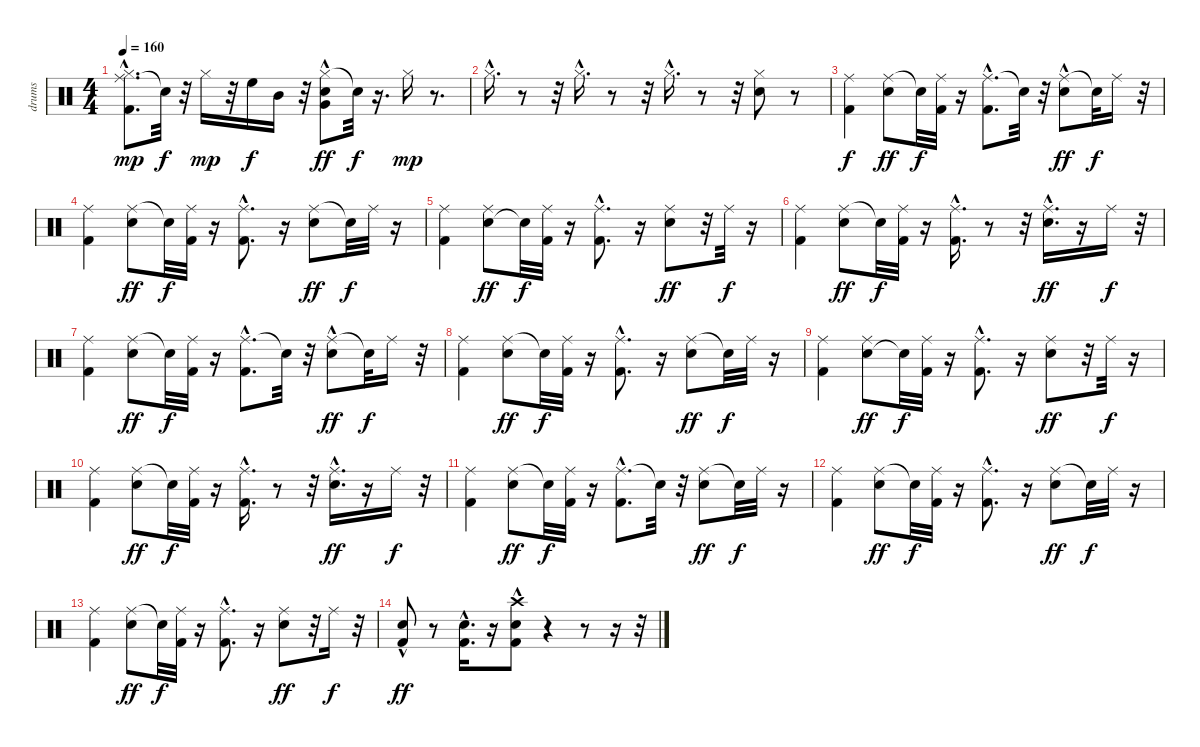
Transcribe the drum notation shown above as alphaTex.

\track ("drums" "drums") {instrument percussion}
\staff {score}
\articulation defaults
\ts (4 4)
\tempo 160
\clef neutral
\ks c
("Ride (middle)" "Kick (hit) 2"{hac} "Hi-Hat (closed)").8{d dy mp} "Snare (hit)"{t}.32{dy f} r.32 "Hi-Hat (closed)".16{dy mp} r.32 "High Floor Tom (hit)".16{dy f} "Mid Tom (hit)".16 r.32 ("Hi-Hat (closed)" "Snare (hit) 2" "Very Low Tom (hit)"{hac}).8{dy ff} "Snare (hit)"{t}.32{dy f} r.16{d} "Hi-Hat (closed)".16{dy mp} r.8{d} |
"Hi-Hat (closed)"{hac}.16{d} r.8 r.32 "Hi-Hat (closed)"{hac}.16{d} r.8 r.32 "Hi-Hat (closed)"{hac}.16{d} r.8 r.32 ("Snare (hit) 2" "Hi-Hat (closed)").8 r.8 |
("Kick (hit) 2" "Ride (middle)").4{dy f} ("Ride (middle)" "Snare (hit) 2").8{dy ff} "Snare (hit)"{t}.32{dy f} ("Ride (middle)" "Kick (hit) 2").32 r.16 ("Ride (middle)" "Kick (hit) 2"{hac}).8{d} "Snare (hit)"{t}.32 r.32 ("Ride (middle)"{hac} "Snare (hit) 2").8{dy ff} "Snare (hit)"{t}.32{dy f} "Ride (middle)".16 r.32 |
("Kick (hit) 2" "Ride (middle)").4 ("Ride (middle)" "Snare (hit) 2").8{dy ff} "Snare (hit)"{t}.32{dy f} ("Ride (middle)" "Kick (hit) 2").32 r.16 ("Ride (middle)" "Kick (hit) 2"{hac}).8{d} r.16 ("Ride (middle)" "Snare (hit) 2").8{dy ff} "Snare (hit)"{t}.32{dy f} "Ride (middle)".32 r.16 |
("Ride (middle)" "Kick (hit) 2").4 ("Snare (hit) 2" "Ride (middle)").8{dy ff} "Snare (hit)"{t}.32{dy f} ("Ride (middle)" "Kick (hit) 2").32 r.16 ("Ride (middle)" "Kick (hit) 2"{hac}).8{d} r.16 ("Ride (middle)" "Snare (hit) 2").8{dy ff} r.32 "Ride (middle)".32{dy f} r.16 |
("Ride (middle)" "Kick (hit) 2").4 ("Ride (middle)" "Snare (hit) 2").8{dy ff} "Snare (hit)"{t}.32{dy f} ("Ride (middle)" "Kick (hit) 2").32 r.16 ("Ride (middle)" "Kick (hit) 2"{hac}).16{d} r.8 r.32 ("Ride (middle)" "Snare (hit) 2"{hac}).16{d dy ff} r.16 "Ride (middle)".16{dy f} r.32 |
("Kick (hit) 2" "Ride (middle)").4 ("Ride (middle)" "Snare (hit) 2").8{dy ff} "Snare (hit)"{t}.32{dy f} ("Ride (middle)" "Kick (hit) 2").32 r.16 ("Ride (middle)" "Kick (hit) 2"{hac}).8{d} "Snare (hit)"{t}.32 r.32 ("Ride (middle)"{hac} "Snare (hit) 2").8{dy ff} "Snare (hit)"{t}.32{dy f} "Ride (middle)".16 r.32 |
("Kick (hit) 2" "Ride (middle)").4 ("Ride (middle)" "Snare (hit) 2").8{dy ff} "Snare (hit)"{t}.32{dy f} ("Ride (middle)" "Kick (hit) 2").32 r.16 ("Ride (middle)" "Kick (hit) 2"{hac}).8{d} r.16 ("Ride (middle)" "Snare (hit) 2").8{dy ff} "Snare (hit)"{t}.32{dy f} "Ride (middle)".32 r.16 |
("Ride (middle)" "Kick (hit) 2").4 ("Snare (hit) 2" "Ride (middle)").8{dy ff} "Snare (hit)"{t}.32{dy f} ("Ride (middle)" "Kick (hit) 2").32 r.16 ("Ride (middle)" "Kick (hit) 2"{hac}).8{d} r.16 ("Ride (middle)" "Snare (hit) 2").8{dy ff} r.32 "Ride (middle)".32{dy f} r.16 |
("Ride (middle)" "Kick (hit) 2").4 ("Ride (middle)" "Snare (hit) 2").8{dy ff} "Snare (hit)"{t}.32{dy f} ("Ride (middle)" "Kick (hit) 2").32 r.16 ("Ride (middle)" "Kick (hit) 2"{hac}).16{d} r.8 r.32 ("Ride (middle)" "Snare (hit) 2"{hac}).16{d dy ff} r.16 "Ride (middle)".16{dy f} r.32 |
("Ride (middle)" "Kick (hit) 2").4 ("Ride (middle)" "Snare (hit) 2").8{dy ff} "Snare (hit)"{t}.32{dy f} ("Ride (middle)" "Kick (hit) 2").32 r.16 ("Ride (middle)" "Kick (hit) 2"{hac}).8{d} "Snare (hit)"{t}.32 r.32 ("Ride (middle)" "Snare (hit) 2").8{dy ff} "Snare (hit)"{t}.32{dy f} "Ride (middle)".32 r.16 |
("Ride (middle)" "Kick (hit) 2").4 ("Ride (middle)" "Snare (hit) 2").8{dy ff} "Snare (hit)"{t}.32{dy f} ("Ride (middle)" "Kick (hit) 2").32 r.16 ("Ride (middle)" "Kick (hit) 2"{hac}).8{d} r.16 ("Ride (middle)" "Snare (hit) 2").8{dy ff} "Snare (hit)"{t}.32{dy f} "Ride (middle)".32 r.16 |
("Ride (middle)" "Kick (hit) 2").4 ("Ride (middle)" "Snare (hit) 2").8{dy ff} "Snare (hit)"{t}.32{dy f} ("Ride (middle)" "Kick (hit) 2").32 r.16 ("Ride (middle)" "Kick (hit) 2"{hac}).8{d} r.16 ("Ride (middle)" "Snare (hit) 2").8{dy ff} r.32 "Ride (middle)".16{dy f} r.32 |
("Kick (hit) 2" "Snare (hit) 2"{hac}).8{dy ff} r.8 ("Kick (hit) 2"{hac} "Snare (hit) 2").16{d} r.16 ("Crash high (hit)"{hac} "Snare (hit) 2"{hac} "Kick (hit) 2").8 r.4 r.8 r.16 r.32
